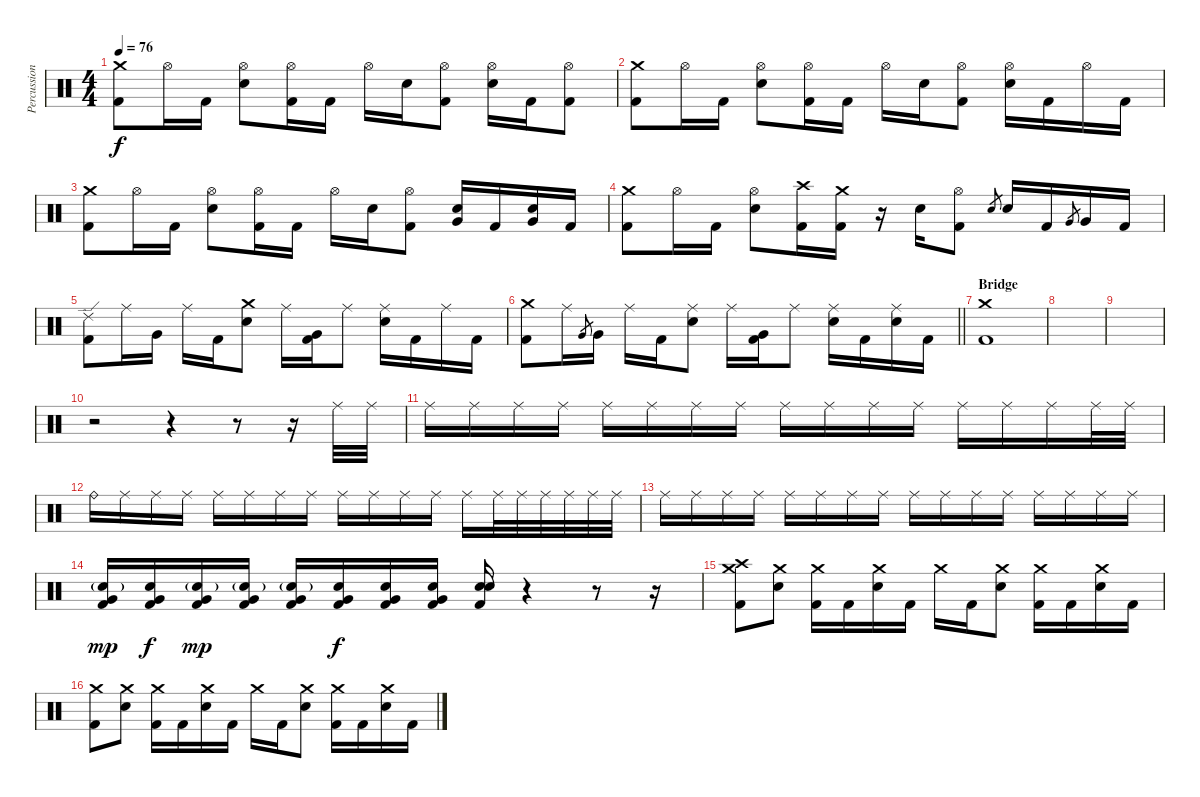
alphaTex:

\track ("Percussion" "Percussion") {instrument percussion}
\staff {score}
\articulation defaults
\ts (4 4)
\tempo 76
\clef neutral
\ks c
("Crash medium (hit)" "Kick (hit) 2").8{dy f} "Hi-Hat (open)".16 "Kick (hit) 2".16 ("Hi-Hat (open)" "Electric Snare (hit)").8 ("Hi-Hat (open)" "Kick (hit) 2").16 "Kick (hit) 2".16 "Hi-Hat (open)".16 "Electric Snare (hit)".16 ("Hi-Hat (open)" "Kick (hit) 2").8 ("Hi-Hat (open)" "Electric Snare (hit)").16 "Kick (hit) 2".16 ("Hi-Hat (open)" "Kick (hit) 2").8 |
("Crash medium (hit)" "Kick (hit) 2").8 "Hi-Hat (open)".16 "Kick (hit) 2".16 ("Hi-Hat (open)" "Electric Snare (hit)").8 ("Hi-Hat (open)" "Kick (hit) 2").16 "Kick (hit) 2".16 "Hi-Hat (open)".16 "Electric Snare (hit)".16 ("Hi-Hat (open)" "Kick (hit) 2").8 ("Hi-Hat (open)" "Electric Snare (hit)").16 "Kick (hit) 2".16 "Hi-Hat (open)".16 "Kick (hit) 2".16 |
("Crash medium (hit)" "Kick (hit) 2").8 "Hi-Hat (open)".16 "Kick (hit) 2".16 ("Hi-Hat (open)" "Electric Snare (hit)").8 ("Hi-Hat (open)" "Kick (hit) 2").16 "Kick (hit) 2".16 "Hi-Hat (open)".16 "Electric Snare (hit)".16 ("Hi-Hat (open)" "Kick (hit) 2").8 ("Very Low Tom (hit)" "Electric Snare (hit)").16 "Kick (hit) 2".16 ("Very Low Tom (hit)" "Electric Snare (hit)").16 "Kick (hit) 2".16 |
("Crash medium (hit)" "Kick (hit) 2").8 "Hi-Hat (open)".16 "Kick (hit) 2".16 ("Hi-Hat (open)" "Electric Snare (hit)").8 ("Crash high (hit)" "Kick (hit) 2").16 ("Crash medium (hit)" "Kick (hit) 2").16 r.16 "Electric Snare (hit)".16 ("Hi-Hat (open)" "Kick (hit) 2").8 "Electric Snare (hit)".8{gr} "Electric Snare (hit)".16 "Kick (hit) 2".16 "Very Low Tom (hit)".8{gr} "Very Low Tom (hit)".16 "Kick (hit) 2".16 |
("Ride (edge) 2" "Kick (hit) 2").8 "Ride (middle)".16 "Very Low Tom (hit)".16 "Ride (middle)".16 "Kick (hit) 2".16 ("Crash medium (hit)" "Electric Snare (hit)").8 "Ride (middle)".16 ("Very Low Tom (hit)" "Kick (hit) 2").16 "Ride (middle)".8 ("Ride (middle)" "Electric Snare (hit)").16 "Kick (hit) 2".16 "Ride (middle)".16 "Kick (hit) 2".16 |
\barLineRight lightlight
("Crash medium (hit)" "Kick (hit) 2").8 "Ride (middle)".16 "Very Low Tom (hit)".8{gr} "Very Low Tom (hit)".16 "Ride (middle)".16 "Kick (hit) 2".16 ("Ride (middle)" "Electric Snare (hit)").8 "Ride (middle)".16 ("Very Low Tom (hit)" "Kick (hit) 2").16 "Ride (middle)".8 ("Ride (middle)" "Electric Snare (hit)").16 "Kick (hit) 2".16 ("Ride (middle)" "Electric Snare (hit)").16 "Kick (hit) 2".16 |
\section ("" "Bridge")
("Crash medium (hit)" "Kick (hit) 2").1 |
|
|
r.2 r.4 r.8 r.16 "Ride (middle)".32 "Ride (middle)".32 |
"Ride (middle)".16 "Ride (middle)".16 "Ride (middle)".16 "Ride (middle)".16 "Ride (middle)".16 "Ride (middle)".16 "Ride (middle)".16 "Ride (middle)".16 "Ride (middle)".16 "Ride (middle)".16 "Ride (middle)".16 "Ride (middle)".16 "Ride (middle)".16 "Ride (middle)".16 "Ride (middle)".16 "Ride (middle)".32 "Ride (middle)".32 |
"Ride (bell)".16 "Ride (middle)".16 "Ride (middle)".16 "Ride (middle)".16 "Ride (middle)".16 "Ride (middle)".16 "Ride (middle)".16 "Ride (middle)".16 "Ride (middle)".16 "Ride (middle)".16 "Ride (middle)".16 "Ride (middle)".16 "Ride (middle)".16 "Ride (middle)".32 "Ride (middle)".32 "Ride (middle)".32 "Ride (middle)".32 "Ride (middle)".32 "Ride (middle)".32 |
"Ride (middle)".16 "Ride (middle)".16 "Ride (middle)".16 "Ride (middle)".16 "Ride (middle)".16 "Ride (middle)".16 "Ride (middle)".16 "Ride (middle)".16 "Ride (middle)".16 "Ride (middle)".16 "Ride (middle)".16 "Ride (middle)".16 "Ride (middle)".16 "Ride (middle)".16 "Ride (middle)".16 "Ride (middle)".16 |
("Very Low Tom (hit)" "Electric Snare (hit)"{g} "Kick (hit) 2").16{dy mp} ("Very Low Tom (hit)" "Electric Snare (hit)" "Kick (hit) 2").16{dy f} ("Very Low Tom (hit)" "Electric Snare (hit)"{g} "Kick (hit) 2").16{dy mp} ("Very Low Tom (hit)" "Electric Snare (hit)"{g} "Kick (hit) 2").16 ("Very Low Tom (hit)" "Electric Snare (hit)"{g} "Kick (hit) 2").16 ("Very Low Tom (hit)" "Electric Snare (hit)" "Kick (hit) 2").16{dy f} ("Very Low Tom (hit)" "Electric Snare (hit)" "Kick (hit) 2").16 ("Very Low Tom (hit)" "Electric Snare (hit)" "Kick (hit) 2").16 ("Electric Snare (hit)" "Electric Snare (hit)" "Kick (hit) 2").16 r.4 r.8 r.16 |
("Crash medium (hit)" "Crash high (hit)" "Kick (hit) 2").8 ("Crash medium (hit)" "Electric Snare (hit)").8 ("Crash medium (hit)" "Kick (hit) 2").16 "Kick (hit) 2".16 ("Crash medium (hit)" "Electric Snare (hit)").16 "Kick (hit) 2".16 "Crash medium (hit)".16 "Kick (hit) 2".16 ("Crash medium (hit)" "Electric Snare (hit)").8 ("Crash medium (hit)" "Kick (hit) 2").16 "Kick (hit) 2".16 ("Crash medium (hit)" "Electric Snare (hit)").16 "Kick (hit) 2".16 |
("Crash medium (hit)" "Kick (hit) 2").8 ("Crash medium (hit)" "Electric Snare (hit)").8 ("Crash medium (hit)" "Kick (hit) 2").16 "Kick (hit) 2".16 ("Crash medium (hit)" "Electric Snare (hit)").16 "Kick (hit) 2".16 "Crash medium (hit)".16 "Kick (hit) 2".16 ("Crash medium (hit)" "Electric Snare (hit)").8 ("Crash medium (hit)" "Kick (hit) 2").16 "Kick (hit) 2".16 ("Crash medium (hit)" "Electric Snare (hit)").16 "Kick (hit) 2".16
